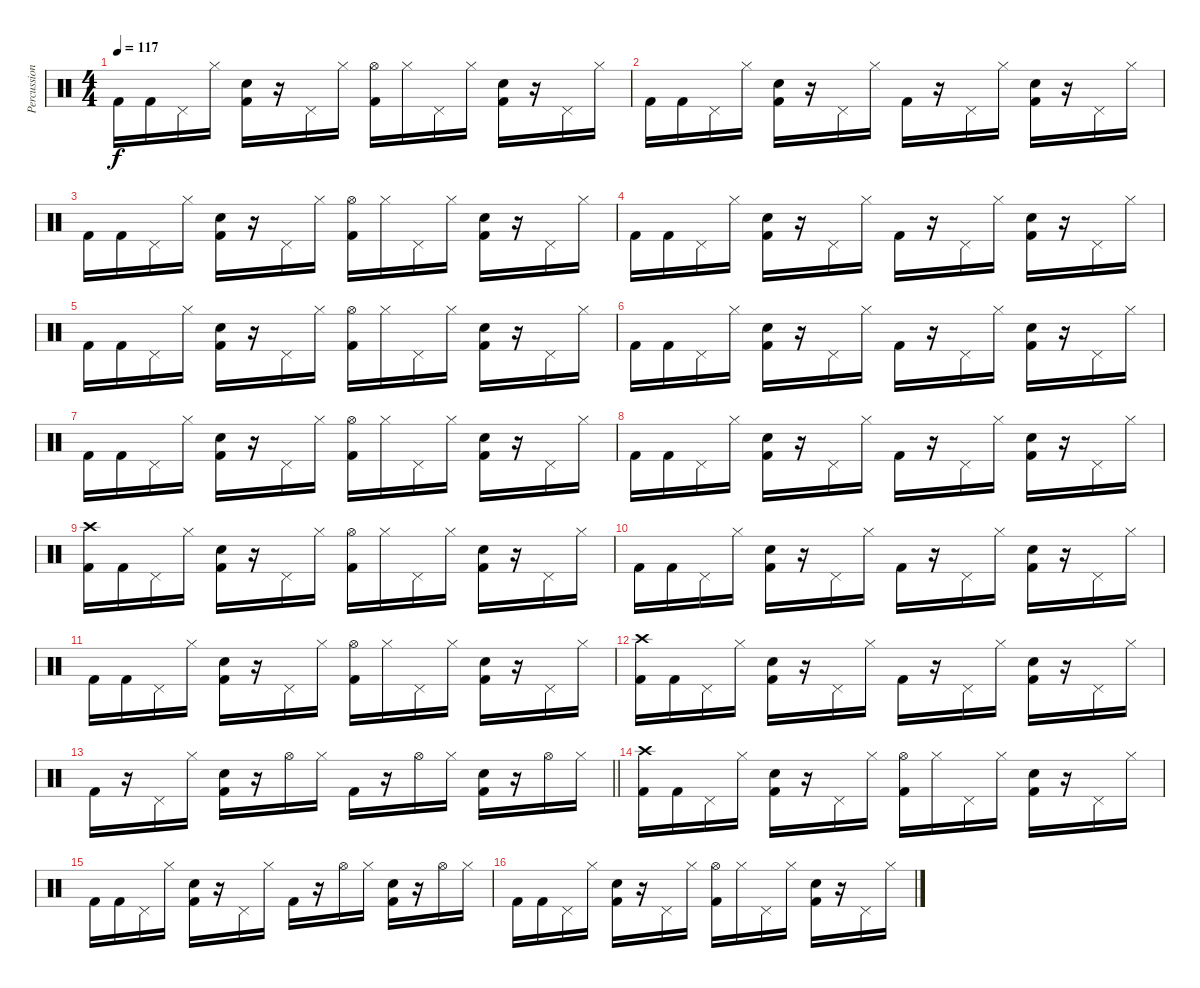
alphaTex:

\track ("Percussion" "Percussion") {instrument percussion}
\staff {score}
\articulation defaults
\ts (4 4)
\tempo 117
\clef neutral
\ks c "Kick (hit) 2".16{dy f} "Kick (hit) 2".16 "Pedal Hi-Hat (hit)".16 "Hi-Hat (closed)".16
("Snare (hit) 2" "Kick (hit) 2").16 r.16 "Pedal Hi-Hat (hit)".16 "Hi-Hat (closed)".16 ("Hi-Hat (open)" "Kick (hit) 2").16 "Hi-Hat (closed)".16 "Pedal Hi-Hat (hit)".16 "Hi-Hat (closed)".16 ("Snare (hit) 2" "Kick (hit) 2").16 r.16 "Pedal Hi-Hat (hit)".16 "Hi-Hat (closed)".16 |
"Kick (hit) 2".16 "Kick (hit) 2".16 "Pedal Hi-Hat (hit)".16 "Hi-Hat (closed)".16 ("Snare (hit) 2" "Kick (hit) 2").16 r.16 "Pedal Hi-Hat (hit)".16 "Hi-Hat (closed)".16 "Kick (hit) 2".16 r.16 "Pedal Hi-Hat (hit)".16 "Hi-Hat (closed)".16 ("Snare (hit) 2" "Kick (hit) 2").16 r.16 "Pedal Hi-Hat (hit)".16 "Hi-Hat (closed)".16 |
"Kick (hit) 2".16 "Kick (hit) 2".16 "Pedal Hi-Hat (hit)".16 "Hi-Hat (closed)".16 ("Snare (hit) 2" "Kick (hit) 2").16 r.16 "Pedal Hi-Hat (hit)".16 "Hi-Hat (closed)".16 ("Hi-Hat (open)" "Kick (hit) 2").16 "Hi-Hat (closed)".16 "Pedal Hi-Hat (hit)".16 "Hi-Hat (closed)".16 ("Snare (hit) 2" "Kick (hit) 2").16 r.16 "Pedal Hi-Hat (hit)".16 "Hi-Hat (closed)".16 |
"Kick (hit) 2".16 "Kick (hit) 2".16 "Pedal Hi-Hat (hit)".16 "Hi-Hat (closed)".16 ("Snare (hit) 2" "Kick (hit) 2").16 r.16 "Pedal Hi-Hat (hit)".16 "Hi-Hat (closed)".16 "Kick (hit) 2".16 r.16 "Pedal Hi-Hat (hit)".16 "Hi-Hat (closed)".16 ("Snare (hit) 2" "Kick (hit) 2").16 r.16 "Pedal Hi-Hat (hit)".16 "Hi-Hat (closed)".16 |
"Kick (hit) 2".16 "Kick (hit) 2".16 "Pedal Hi-Hat (hit)".16 "Hi-Hat (closed)".16 ("Snare (hit) 2" "Kick (hit) 2").16 r.16 "Pedal Hi-Hat (hit)".16 "Hi-Hat (closed)".16 ("Hi-Hat (open)" "Kick (hit) 2").16 "Hi-Hat (closed)".16 "Pedal Hi-Hat (hit)".16 "Hi-Hat (closed)".16 ("Snare (hit) 2" "Kick (hit) 2").16 r.16 "Pedal Hi-Hat (hit)".16 "Hi-Hat (closed)".16 |
"Kick (hit) 2".16 "Kick (hit) 2".16 "Pedal Hi-Hat (hit)".16 "Hi-Hat (closed)".16 ("Snare (hit) 2" "Kick (hit) 2").16 r.16 "Pedal Hi-Hat (hit)".16 "Hi-Hat (closed)".16 "Kick (hit) 2".16 r.16 "Pedal Hi-Hat (hit)".16 "Hi-Hat (closed)".16 ("Snare (hit) 2" "Kick (hit) 2").16 r.16 "Pedal Hi-Hat (hit)".16 "Hi-Hat (closed)".16 |
"Kick (hit) 2".16 "Kick (hit) 2".16 "Pedal Hi-Hat (hit)".16 "Hi-Hat (closed)".16 ("Snare (hit) 2" "Kick (hit) 2").16 r.16 "Pedal Hi-Hat (hit)".16 "Hi-Hat (closed)".16 ("Hi-Hat (open)" "Kick (hit) 2").16 "Hi-Hat (closed)".16 "Pedal Hi-Hat (hit)".16 "Hi-Hat (closed)".16 ("Snare (hit) 2" "Kick (hit) 2").16 r.16 "Pedal Hi-Hat (hit)".16 "Hi-Hat (closed)".16 |
"Kick (hit) 2".16 "Kick (hit) 2".16 "Pedal Hi-Hat (hit)".16 "Hi-Hat (closed)".16 ("Snare (hit) 2" "Kick (hit) 2").16 r.16 "Pedal Hi-Hat (hit)".16 "Hi-Hat (closed)".16 "Kick (hit) 2".16 r.16 "Pedal Hi-Hat (hit)".16 "Hi-Hat (closed)".16 ("Snare (hit) 2" "Kick (hit) 2").16 r.16 "Pedal Hi-Hat (hit)".16 "Hi-Hat (closed)".16 |
("Crash high (hit)" "Kick (hit) 2").16 "Kick (hit) 2".16 "Pedal Hi-Hat (hit)".16 "Hi-Hat (closed)".16 ("Snare (hit) 2" "Kick (hit) 2").16 r.16 "Pedal Hi-Hat (hit)".16 "Hi-Hat (closed)".16 ("Hi-Hat (open)" "Kick (hit) 2").16 "Hi-Hat (closed)".16 "Pedal Hi-Hat (hit)".16 "Hi-Hat (closed)".16 ("Snare (hit) 2" "Kick (hit) 2").16 r.16 "Pedal Hi-Hat (hit)".16 "Hi-Hat (closed)".16 |
"Kick (hit) 2".16 "Kick (hit) 2".16 "Pedal Hi-Hat (hit)".16 "Hi-Hat (closed)".16 ("Snare (hit) 2" "Kick (hit) 2").16 r.16 "Pedal Hi-Hat (hit)".16 "Hi-Hat (closed)".16 "Kick (hit) 2".16 r.16 "Pedal Hi-Hat (hit)".16 "Hi-Hat (closed)".16 ("Snare (hit) 2" "Kick (hit) 2").16 r.16 "Pedal Hi-Hat (hit)".16 "Hi-Hat (closed)".16 |
"Kick (hit) 2".16 "Kick (hit) 2".16 "Pedal Hi-Hat (hit)".16 "Hi-Hat (closed)".16 ("Snare (hit) 2" "Kick (hit) 2").16 r.16 "Pedal Hi-Hat (hit)".16 "Hi-Hat (closed)".16 ("Hi-Hat (open)" "Kick (hit) 2").16 "Hi-Hat (closed)".16 "Pedal Hi-Hat (hit)".16 "Hi-Hat (closed)".16 ("Snare (hit) 2" "Kick (hit) 2").16 r.16 "Pedal Hi-Hat (hit)".16 "Hi-Hat (closed)".16 |
("Crash high (hit)" "Kick (hit) 2").16 "Kick (hit) 2".16 "Pedal Hi-Hat (hit)".16 "Hi-Hat (closed)".16 ("Snare (hit) 2" "Kick (hit) 2").16 r.16 "Pedal Hi-Hat (hit)".16 "Hi-Hat (closed)".16 "Kick (hit) 2".16 r.16 "Pedal Hi-Hat (hit)".16 "Hi-Hat (closed)".16 ("Snare (hit) 2" "Kick (hit) 2").16 r.16 "Pedal Hi-Hat (hit)".16 "Hi-Hat (closed)".16 |
\barLineRight lightlight "Kick (hit) 2".16
r.16 "Pedal Hi-Hat (hit)".16 "Hi-Hat (closed)".16 ("Snare (hit) 2" "Kick (hit) 2").16 r.16 "Hi-Hat (open)".16 "Hi-Hat (closed)".16 "Kick (hit) 2".16 r.16 "Hi-Hat (open)".16 "Hi-Hat (closed)".16 ("Snare (hit) 2" "Kick (hit) 2").16 r.16 "Hi-Hat (open)".16 "Hi-Hat (closed)".16 |
("Crash high (hit)" "Kick (hit) 2").16 "Kick (hit) 2".16 "Pedal Hi-Hat (hit)".16 "Hi-Hat (closed)".16 ("Snare (hit) 2" "Kick (hit) 2").16 r.16 "Pedal Hi-Hat (hit)".16 "Hi-Hat (closed)".16 ("Hi-Hat (open)" "Kick (hit) 2").16 "Hi-Hat (closed)".16 "Pedal Hi-Hat (hit)".16 "Hi-Hat (closed)".16 ("Snare (hit) 2" "Kick (hit) 2").16 r.16 "Pedal Hi-Hat (hit)".16 "Hi-Hat (closed)".16 |
"Kick (hit) 2".16 "Kick (hit) 2".16 "Pedal Hi-Hat (hit)".16 "Hi-Hat (closed)".16 ("Snare (hit) 2" "Kick (hit) 2").16 r.16 "Pedal Hi-Hat (hit)".16 "Hi-Hat (closed)".16 "Kick (hit) 2".16 r.16 "Hi-Hat (open)".16 "Hi-Hat (closed)".16 ("Snare (hit) 2" "Kick (hit) 2").16 r.16 "Hi-Hat (open)".16 "Hi-Hat (closed)".16 |
"Kick (hit) 2".16 "Kick (hit) 2".16 "Pedal Hi-Hat (hit)".16 "Hi-Hat (closed)".16 ("Snare (hit) 2" "Kick (hit) 2").16 r.16 "Pedal Hi-Hat (hit)".16 "Hi-Hat (closed)".16 ("Hi-Hat (open)" "Kick (hit) 2").16 "Hi-Hat (closed)".16 "Pedal Hi-Hat (hit)".16 "Hi-Hat (closed)".16 ("Snare (hit) 2" "Kick (hit) 2").16 r.16 "Pedal Hi-Hat (hit)".16 "Hi-Hat (closed)".16
